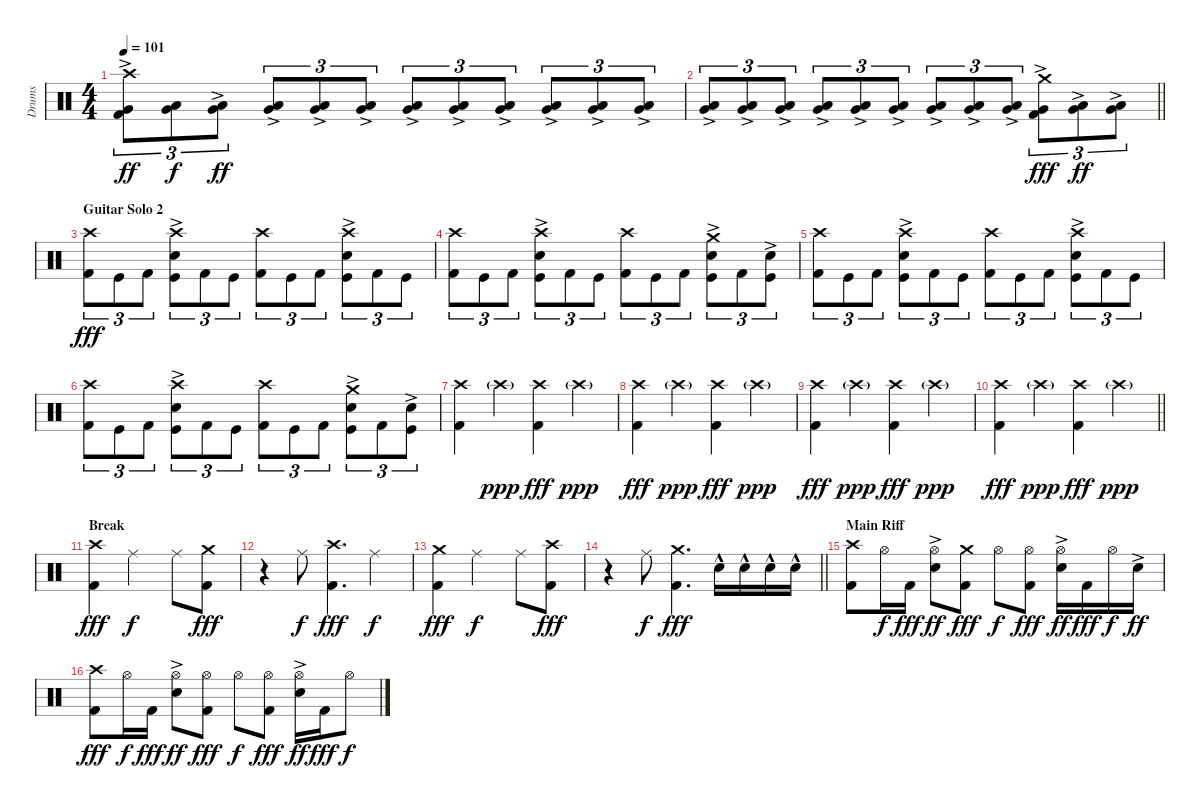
\track ("Drums" "Drums") {instrument percussion}
\staff {score}
\articulation defaults
\ts (4 4)
\tempo 101
\clef neutral
\ks c
("Crash high (hit)" "Very Low Tom (hit)"{ac} "Kick (hit) 2").8{tu (3 2) dy ff} ("Low Tom (hit)" "Very Low Tom (hit)").8{tu (3 2) dy f} ("Low Tom (hit)"{ac} "Very Low Tom (hit)"{ac}).8{tu (3 2) dy ff} ("Low Tom (hit)"{ac} "Very Low Tom (hit)"{ac}).8{tu (3 2)} ("Low Tom (hit)"{ac} "Very Low Tom (hit)"{ac}).8{tu (3 2)} ("Low Tom (hit)"{ac} "Very Low Tom (hit)"{ac}).8{tu (3 2)} ("Low Tom (hit)"{ac} "Very Low Tom (hit)"{ac}).8{tu (3 2)} ("Low Tom (hit)"{ac} "Very Low Tom (hit)"{ac}).8{tu (3 2)} ("Low Tom (hit)"{ac} "Very Low Tom (hit)"{ac}).8{tu (3 2)} ("Low Tom (hit)"{ac} "Very Low Tom (hit)"{ac}).8{tu (3 2)} ("Low Tom (hit)"{ac} "Very Low Tom (hit)"{ac}).8{tu (3 2)} ("Low Tom (hit)"{ac} "Very Low Tom (hit)"{ac}).8{tu (3 2)} |
\barLineRight lightlight
("Low Tom (hit)"{ac} "Very Low Tom (hit)"{ac}).8{tu (3 2)} ("Low Tom (hit)"{ac} "Very Low Tom (hit)"{ac}).8{tu (3 2)} ("Low Tom (hit)"{ac} "Very Low Tom (hit)"{ac}).8{tu (3 2)} ("Low Tom (hit)"{ac} "Very Low Tom (hit)"{ac}).8{tu (3 2)} ("Low Tom (hit)"{ac} "Very Low Tom (hit)"{ac}).8{tu (3 2)} ("Low Tom (hit)"{ac} "Very Low Tom (hit)"{ac}).8{tu (3 2)} ("Low Tom (hit)"{ac} "Very Low Tom (hit)"{ac}).8{tu (3 2)} ("Low Tom (hit)"{ac} "Very Low Tom (hit)"{ac}).8{tu (3 2)} ("Low Tom (hit)"{ac} "Very Low Tom (hit)"{ac}).8{tu (3 2)} ("Crash medium (hit)" "Very Low Tom (hit)"{ac} "Kick (hit) 2").8{tu (3 2) dy fff} ("Low Tom (hit)"{ac} "Very Low Tom (hit)"{ac}).8{tu (3 2) dy ff} ("Low Tom (hit)"{ac} "Very Low Tom (hit)"{ac}).8{tu (3 2)} |
\section ("" "Guitar Solo 2")
("Crash high (hit)" "Kick (hit) 2").8{tu (3 2) dy fff} "Kick (hit)".8{tu (3 2)} "Kick (hit) 2".8{tu (3 2)} ("Crash high (hit)" "Snare (hit) 2"{ac} "Kick (hit)").8{tu (3 2)} "Kick (hit) 2".8{tu (3 2)} "Kick (hit)".8{tu (3 2)} ("Crash high (hit)" "Kick (hit) 2").8{tu (3 2)} "Kick (hit)".8{tu (3 2)} "Kick (hit) 2".8{tu (3 2)} ("Crash high (hit)" "Snare (hit) 2"{ac} "Kick (hit)").8{tu (3 2)} "Kick (hit) 2".8{tu (3 2)} "Kick (hit)".8{tu (3 2)} |
("Crash high (hit)" "Kick (hit) 2").8{tu (3 2)} "Kick (hit)".8{tu (3 2)} "Kick (hit) 2".8{tu (3 2)} ("Crash high (hit)" "Snare (hit) 2"{ac} "Kick (hit)").8{tu (3 2)} "Kick (hit) 2".8{tu (3 2)} "Kick (hit)".8{tu (3 2)} ("Crash high (hit)" "Kick (hit) 2").8{tu (3 2)} "Kick (hit)".8{tu (3 2)} "Kick (hit) 2".8{tu (3 2)} ("Crash medium (hit)" "Snare (hit) 2"{ac} "Kick (hit)").8{tu (3 2)} "Kick (hit) 2".8{tu (3 2)} ("Snare (hit) 2"{ac} "Kick (hit)").8{tu (3 2)} |
("Crash high (hit)" "Kick (hit) 2").8{tu (3 2)} "Kick (hit)".8{tu (3 2)} "Kick (hit) 2".8{tu (3 2)} ("Crash high (hit)" "Snare (hit) 2"{ac} "Kick (hit)").8{tu (3 2)} "Kick (hit) 2".8{tu (3 2)} "Kick (hit)".8{tu (3 2)} ("Crash high (hit)" "Kick (hit) 2").8{tu (3 2)} "Kick (hit)".8{tu (3 2)} "Kick (hit) 2".8{tu (3 2)} ("Crash high (hit)" "Snare (hit) 2"{ac} "Kick (hit)").8{tu (3 2)} "Kick (hit) 2".8{tu (3 2)} "Kick (hit)".8{tu (3 2)} |
("Crash high (hit)" "Kick (hit) 2").8{tu (3 2)} "Kick (hit)".8{tu (3 2)} "Kick (hit) 2".8{tu (3 2)} ("Crash high (hit)" "Snare (hit) 2"{ac} "Kick (hit)").8{tu (3 2)} "Kick (hit) 2".8{tu (3 2)} "Kick (hit)".8{tu (3 2)} ("Crash high (hit)" "Kick (hit) 2").8{tu (3 2)} "Kick (hit)".8{tu (3 2)} "Kick (hit) 2".8{tu (3 2)} ("Crash medium (hit)" "Snare (hit) 2"{ac} "Kick (hit)").8{tu (3 2)} "Kick (hit) 2".8{tu (3 2)} ("Snare (hit) 2"{ac} "Kick (hit)").8{tu (3 2)} |
("Crash high (hit)" "Kick (hit) 2").4 "Crash high (hit)"{g}.4{dy ppp} ("Crash high (hit)" "Kick (hit) 2").4{dy fff} "Crash high (hit)"{g}.4{dy ppp} |
("Crash high (hit)" "Kick (hit) 2").4{dy fff} "Crash high (hit)"{g}.4{dy ppp} ("Crash high (hit)" "Kick (hit) 2").4{dy fff} "Crash high (hit)"{g}.4{dy ppp} |
("Crash high (hit)" "Kick (hit) 2").4{dy fff} "Crash high (hit)"{g}.4{dy ppp} ("Crash high (hit)" "Kick (hit) 2").4{dy fff} "Crash high (hit)"{g}.4{dy ppp} |
\barLineRight lightlight
("Crash high (hit)" "Kick (hit) 2").4{dy fff} "Crash high (hit)"{g}.4{dy ppp} ("Crash high (hit)" "Kick (hit) 2").4{dy fff} "Crash high (hit)"{g}.4{dy ppp} |
\section ("" "Break")
("Crash high (hit)" "Kick (hit) 2").4{dy fff} "Ride (middle)".2{dy f} "Ride (middle)".8 ("Crash medium (hit)" "Kick (hit) 2").8{dy fff} |
r.4 "Ride (middle)".8{dy f} ("Crash high (hit)" "Kick (hit) 2").4{d dy fff} "Ride (middle)".4{dy f} |
("Crash medium (hit)" "Kick (hit) 2").4{dy fff} "Ride (middle)".2{dy f} "Ride (middle)".8 ("Crash high (hit)" "Kick (hit) 2").8{dy fff} |
\barLineRight lightlight
r.4 "Ride (middle)".8{dy f} ("Crash medium (hit)" "Kick (hit) 2").4{d dy fff} "Snare (hit) 2"{hac}.16 "Snare (hit) 2"{hac}.16 "Snare (hit) 2"{hac}.16 "Snare (hit) 2"{hac}.16 |
\section ("" "Main Riff")
("Crash high (hit)" "Kick (hit) 2").8 "Hi-Hat (open)".16{dy f} "Kick (hit) 2".16{dy fff} ("Hi-Hat (open)" "Snare (hit) 2"{ac}).8{dy ff} ("Crash medium (hit)" "Kick (hit) 2").8{dy fff} "Hi-Hat (open)".8{dy f} ("Hi-Hat (open)" "Kick (hit) 2").8{dy fff} ("Hi-Hat (open)" "Snare (hit) 2"{ac}).16{dy ff} "Kick (hit) 2".16{dy fff} "Hi-Hat (open)".16{dy f} "Snare (hit) 2"{ac}.16{dy ff} |
("Crash high (hit)" "Kick (hit) 2").8{dy fff} "Hi-Hat (open)".16{dy f} "Kick (hit) 2".16{dy fff} ("Hi-Hat (open)" "Snare (hit) 2"{ac}).8{dy ff} ("Hi-Hat (open)" "Kick (hit) 2").8{dy fff} "Hi-Hat (open)".8{dy f} ("Hi-Hat (open)" "Kick (hit) 2").8{dy fff} ("Hi-Hat (open)" "Snare (hit) 2"{ac}).16{dy ff} "Kick (hit) 2".16{dy fff} "Hi-Hat (open)".8{dy f}
